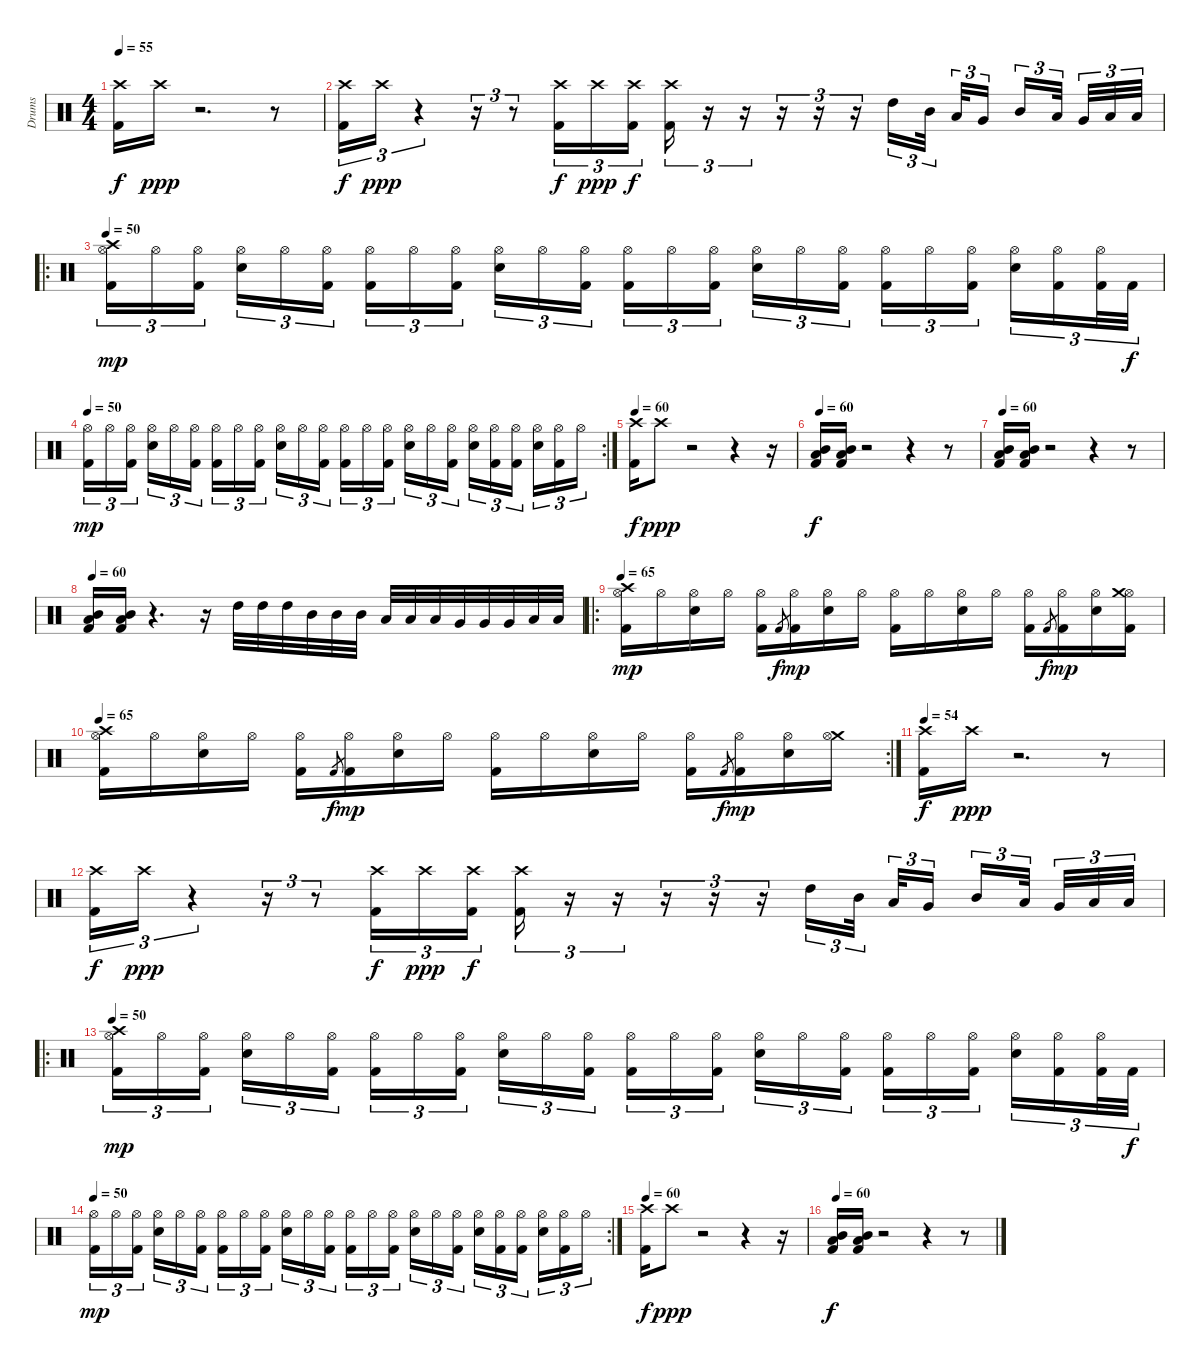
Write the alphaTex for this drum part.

\track ("Drums" "Drums") {instrument percussion}
\staff {score}
\articulation defaults
\ts (4 4)
\tempo 55
\clef neutral
\ks c
("Crash high (hit)" "Kick (hit) 2").16{dy f} "Crash high (hit)".16{dy ppp} r.2{d} r.8 |
("Crash high (hit)" "Kick (hit) 2").16{tu (3 2) dy f} "Crash high (hit)".16{tu (3 2) dy ppp} r.4{tu (3 2)} r.16{tu (3 2)} r.8{tu (3 2)} ("Crash high (hit)" "Kick (hit) 2").16{tu (3 2) dy f} "Crash high (hit)".16{tu (3 2) dy ppp} ("Crash high (hit)" "Kick (hit) 2").16{tu (3 2) dy f} ("Crash high (hit)" "Kick (hit) 2").16{tu (3 2)} r.16{tu (3 2)} r.16{tu (3 2)} r.16{tu (3 2)} r.16{tu (3 2)} r.16{tu (3 2)} "High Tom (hit)".16{tu (3 2)} "Mid Tom (hit)".32{tu (3 2)} "Low Tom (hit)".32{tu (3 2)} "Very Low Tom (hit)".16{tu (3 2)} "Mid Tom (hit)".16{tu (3 2)} "Low Tom (hit)".32{tu (3 2)} "Very Low Tom (hit)".32{tu (3 2)} "Low Floor Tom (hit)".32{tu (3 2)} "Low Floor Tom (hit)".32{tu (3 2)} |
\ro
\tempo 50
("Hi-Hat (open)" "Crash high (hit)" "Kick (hit) 2").16{tu (3 2) dy mp} "Hi-Hat (open)".16{tu (3 2)} ("Hi-Hat (open)" "Kick (hit) 2").16{tu (3 2)} ("Hi-Hat (open)" "Snare (hit) 2").16{tu (3 2)} "Hi-Hat (open)".16{tu (3 2)} ("Hi-Hat (open)" "Kick (hit) 2").16{tu (3 2)} ("Hi-Hat (open)" "Kick (hit) 2").16{tu (3 2)} "Hi-Hat (open)".16{tu (3 2)} ("Hi-Hat (open)" "Kick (hit) 2").16{tu (3 2)} ("Hi-Hat (open)" "Snare (hit) 2").16{tu (3 2)} "Hi-Hat (open)".16{tu (3 2)} ("Hi-Hat (open)" "Kick (hit) 2").16{tu (3 2)} ("Hi-Hat (open)" "Kick (hit) 2").16{tu (3 2)} "Hi-Hat (open)".16{tu (3 2)} ("Hi-Hat (open)" "Kick (hit) 2").16{tu (3 2)} ("Hi-Hat (open)" "Snare (hit) 2").16{tu (3 2)} "Hi-Hat (open)".16{tu (3 2)} ("Hi-Hat (open)" "Kick (hit) 2").16{tu (3 2)} ("Hi-Hat (open)" "Kick (hit) 2").16{tu (3 2)} "Hi-Hat (open)".16{tu (3 2)} ("Hi-Hat (open)" "Kick (hit) 2").16{tu (3 2)} ("Hi-Hat (open)" "Snare (hit) 2").16{tu (3 2)} ("Hi-Hat (open)" "Kick (hit) 2").16{tu (3 2)} ("Hi-Hat (open)" "Kick (hit) 2").32{tu (3 2)} "Kick (hit) 2".32{tu (3 2) dy f} |
\rc 2
\tempo 50
("Hi-Hat (open)" "Kick (hit) 2").16{tu (3 2) dy mp} "Hi-Hat (open)".16{tu (3 2)} ("Hi-Hat (open)" "Kick (hit) 2").16{tu (3 2)} ("Hi-Hat (open)" "Snare (hit) 2").16{tu (3 2)} "Hi-Hat (open)".16{tu (3 2)} ("Hi-Hat (open)" "Kick (hit) 2").16{tu (3 2)} ("Hi-Hat (open)" "Kick (hit) 2").16{tu (3 2)} "Hi-Hat (open)".16{tu (3 2)} ("Hi-Hat (open)" "Kick (hit) 2").16{tu (3 2)} ("Hi-Hat (open)" "Snare (hit) 2").16{tu (3 2)} "Hi-Hat (open)".16{tu (3 2)} ("Hi-Hat (open)" "Kick (hit) 2").16{tu (3 2)} ("Hi-Hat (open)" "Kick (hit) 2").16{tu (3 2)} "Hi-Hat (open)".16{tu (3 2)} ("Hi-Hat (open)" "Kick (hit) 2").16{tu (3 2)} ("Hi-Hat (open)" "Snare (hit) 2").16{tu (3 2)} "Hi-Hat (open)".16{tu (3 2)} ("Hi-Hat (open)" "Kick (hit) 2").16{tu (3 2)} ("Hi-Hat (open)" "Snare (hit) 2").16{tu (3 2)} ("Hi-Hat (open)" "Kick (hit) 2").16{tu (3 2)} ("Hi-Hat (open)" "Kick (hit) 2").16{tu (3 2)} ("Hi-Hat (open)" "Snare (hit) 2").16{tu (3 2)} ("Hi-Hat (open)" "Kick (hit) 2").16{tu (3 2)} "Hi-Hat (open)".16{tu (3 2)} |
\tempo 60
("Crash high (hit)" "Kick (hit) 2").16{dy f} "Crash high (hit)".8{dy ppp} r.2 r.4 r.16 |
\tempo 60
("Mid Tom (hit)" "Low Tom (hit)" "Kick (hit) 2").16{dy f} ("Mid Tom (hit)" "Low Tom (hit)" "Kick (hit) 2").16 r.2 r.4 r.8 |
\tempo 60
("Mid Tom (hit)" "Low Tom (hit)" "Kick (hit) 2").16 ("Mid Tom (hit)" "Low Tom (hit)" "Kick (hit) 2").16 r.2 r.4 r.8 |
\tempo 60
("Mid Tom (hit)" "Low Tom (hit)" "Kick (hit) 2").16 ("Mid Tom (hit)" "Low Tom (hit)" "Kick (hit) 2").16 r.4{d} r.16 "High Tom (hit)".32 "High Tom (hit)".32 "High Tom (hit)".32 "Mid Tom (hit)".32 "Mid Tom (hit)".32 "Mid Tom (hit)".32 "Low Tom (hit)".32 "Low Tom (hit)".32 "Low Tom (hit)".32 "Very Low Tom (hit)".32 "Very Low Tom (hit)".32 "Very Low Tom (hit)".32 "Low Floor Tom (hit)".32 "Low Floor Tom (hit)".32 |
\ro
\tempo 60
\tempo 65
("Crash high (hit)" "Hi-Hat (open)" "Kick (hit) 2").16{dy mp} "Hi-Hat (open)".16 ("Hi-Hat (open)" "Snare (hit) 2").16 "Hi-Hat (open)".16 ("Hi-Hat (open)" "Kick (hit) 2").16 "Kick (hit) 2".8{gr dy f} ("Hi-Hat (open)" "Kick (hit) 2").16{dy mp} ("Hi-Hat (open)" "Snare (hit) 2").16 "Hi-Hat (open)".16 ("Hi-Hat (open)" "Kick (hit) 2").16 "Hi-Hat (open)".16 ("Hi-Hat (open)" "Snare (hit) 2").16 "Hi-Hat (open)".16 ("Hi-Hat (open)" "Kick (hit) 2").16 "Kick (hit) 2".8{gr dy f} ("Hi-Hat (open)" "Kick (hit) 2").16{dy mp} ("Hi-Hat (open)" "Snare (hit) 2").16 ("Hi-Hat (open)" "Crash medium (hit)" "Kick (hit) 2").16 |
\rc 2
\tempo 60
\tempo 65
("Crash high (hit)" "Hi-Hat (open)" "Kick (hit) 2").16 "Hi-Hat (open)".16 ("Hi-Hat (open)" "Snare (hit) 2").16 "Hi-Hat (open)".16 ("Hi-Hat (open)" "Kick (hit) 2").16 "Kick (hit) 2".8{gr dy f} ("Hi-Hat (open)" "Kick (hit) 2").16{dy mp} ("Hi-Hat (open)" "Snare (hit) 2").16 "Hi-Hat (open)".16 ("Hi-Hat (open)" "Kick (hit) 2").16 "Hi-Hat (open)".16 ("Hi-Hat (open)" "Snare (hit) 2").16 "Hi-Hat (open)".16 ("Hi-Hat (open)" "Kick (hit) 2").16 "Kick (hit) 2".8{gr dy f} ("Hi-Hat (open)" "Kick (hit) 2").16{dy mp} ("Hi-Hat (open)" "Snare (hit) 2").16 ("Crash medium (hit)" "Hi-Hat (open)").16 |
\tempo 54
("Crash high (hit)" "Kick (hit) 2").16{dy f} "Crash high (hit)".16{dy ppp} r.2{d} r.8 |
("Crash high (hit)" "Kick (hit) 2").16{tu (3 2) dy f} "Crash high (hit)".16{tu (3 2) dy ppp} r.4{tu (3 2)} r.16{tu (3 2)} r.8{tu (3 2)} ("Crash high (hit)" "Kick (hit) 2").16{tu (3 2) dy f} "Crash high (hit)".16{tu (3 2) dy ppp} ("Crash high (hit)" "Kick (hit) 2").16{tu (3 2) dy f} ("Crash high (hit)" "Kick (hit) 2").16{tu (3 2)} r.16{tu (3 2)} r.16{tu (3 2)} r.16{tu (3 2)} r.16{tu (3 2)} r.16{tu (3 2)} "High Tom (hit)".16{tu (3 2)} "Mid Tom (hit)".32{tu (3 2)} "Low Tom (hit)".32{tu (3 2)} "Very Low Tom (hit)".16{tu (3 2)} "Mid Tom (hit)".16{tu (3 2)} "Low Tom (hit)".32{tu (3 2)} "Very Low Tom (hit)".32{tu (3 2)} "Low Floor Tom (hit)".32{tu (3 2)} "Low Floor Tom (hit)".32{tu (3 2)} |
\ro
\tempo 50
("Hi-Hat (open)" "Crash high (hit)" "Kick (hit) 2").16{tu (3 2) dy mp} "Hi-Hat (open)".16{tu (3 2)} ("Hi-Hat (open)" "Kick (hit) 2").16{tu (3 2)} ("Hi-Hat (open)" "Snare (hit) 2").16{tu (3 2)} "Hi-Hat (open)".16{tu (3 2)} ("Hi-Hat (open)" "Kick (hit) 2").16{tu (3 2)} ("Hi-Hat (open)" "Kick (hit) 2").16{tu (3 2)} "Hi-Hat (open)".16{tu (3 2)} ("Hi-Hat (open)" "Kick (hit) 2").16{tu (3 2)} ("Hi-Hat (open)" "Snare (hit) 2").16{tu (3 2)} "Hi-Hat (open)".16{tu (3 2)} ("Hi-Hat (open)" "Kick (hit) 2").16{tu (3 2)} ("Hi-Hat (open)" "Kick (hit) 2").16{tu (3 2)} "Hi-Hat (open)".16{tu (3 2)} ("Hi-Hat (open)" "Kick (hit) 2").16{tu (3 2)} ("Hi-Hat (open)" "Snare (hit) 2").16{tu (3 2)} "Hi-Hat (open)".16{tu (3 2)} ("Hi-Hat (open)" "Kick (hit) 2").16{tu (3 2)} ("Hi-Hat (open)" "Kick (hit) 2").16{tu (3 2)} "Hi-Hat (open)".16{tu (3 2)} ("Hi-Hat (open)" "Kick (hit) 2").16{tu (3 2)} ("Hi-Hat (open)" "Snare (hit) 2").16{tu (3 2)} ("Hi-Hat (open)" "Kick (hit) 2").16{tu (3 2)} ("Hi-Hat (open)" "Kick (hit) 2").32{tu (3 2)} "Kick (hit) 2".32{tu (3 2) dy f} |
\rc 2
\tempo 50
("Hi-Hat (open)" "Kick (hit) 2").16{tu (3 2) dy mp} "Hi-Hat (open)".16{tu (3 2)} ("Hi-Hat (open)" "Kick (hit) 2").16{tu (3 2)} ("Hi-Hat (open)" "Snare (hit) 2").16{tu (3 2)} "Hi-Hat (open)".16{tu (3 2)} ("Hi-Hat (open)" "Kick (hit) 2").16{tu (3 2)} ("Hi-Hat (open)" "Kick (hit) 2").16{tu (3 2)} "Hi-Hat (open)".16{tu (3 2)} ("Hi-Hat (open)" "Kick (hit) 2").16{tu (3 2)} ("Hi-Hat (open)" "Snare (hit) 2").16{tu (3 2)} "Hi-Hat (open)".16{tu (3 2)} ("Hi-Hat (open)" "Kick (hit) 2").16{tu (3 2)} ("Hi-Hat (open)" "Kick (hit) 2").16{tu (3 2)} "Hi-Hat (open)".16{tu (3 2)} ("Hi-Hat (open)" "Kick (hit) 2").16{tu (3 2)} ("Hi-Hat (open)" "Snare (hit) 2").16{tu (3 2)} "Hi-Hat (open)".16{tu (3 2)} ("Hi-Hat (open)" "Kick (hit) 2").16{tu (3 2)} ("Hi-Hat (open)" "Snare (hit) 2").16{tu (3 2)} ("Hi-Hat (open)" "Kick (hit) 2").16{tu (3 2)} ("Hi-Hat (open)" "Kick (hit) 2").16{tu (3 2)} ("Hi-Hat (open)" "Snare (hit) 2").16{tu (3 2)} ("Hi-Hat (open)" "Kick (hit) 2").16{tu (3 2)} "Hi-Hat (open)".16{tu (3 2)} |
\tempo 60
("Crash high (hit)" "Kick (hit) 2").16{dy f} "Crash high (hit)".8{dy ppp} r.2 r.4 r.16 |
\tempo 60
("Mid Tom (hit)" "Low Tom (hit)" "Kick (hit) 2").16{dy f} ("Mid Tom (hit)" "Low Tom (hit)" "Kick (hit) 2").16 r.2 r.4 r.8
